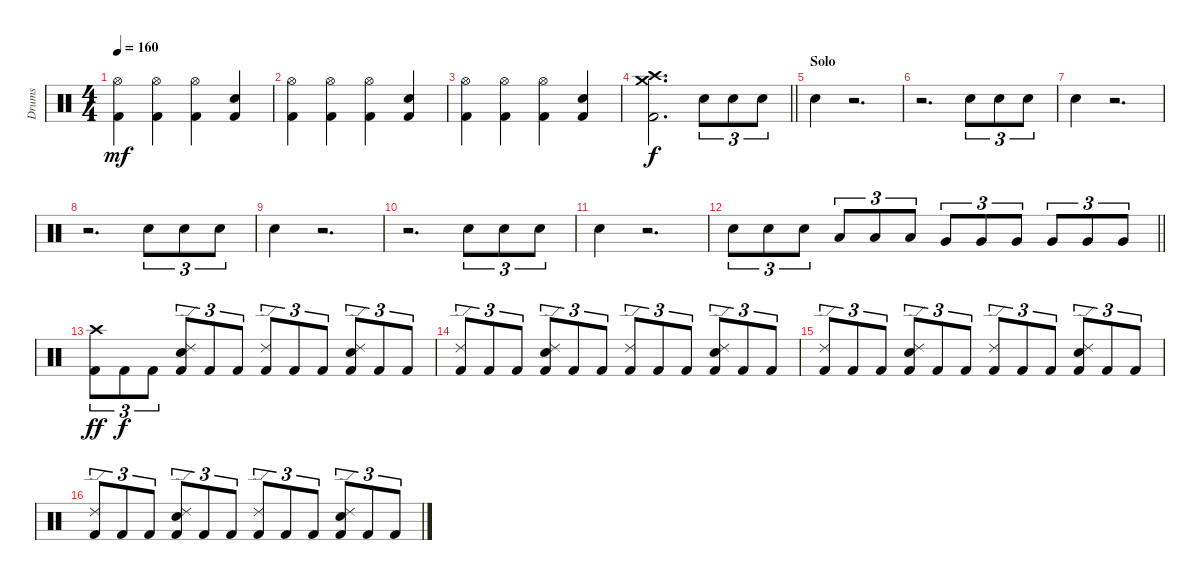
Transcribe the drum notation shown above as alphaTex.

\track ("Drums" "Drums") {instrument percussion}
\staff {score}
\articulation defaults
\ts (4 4)
\tempo 160
\clef neutral
\ks c
("Hi-Hat (open)" "Kick (hit) 2").4{dy mf} ("Hi-Hat (open)" "Kick (hit) 2").4 ("Hi-Hat (open)" "Kick (hit) 2").4 ("Snare (hit) 2" "Kick (hit) 2").4 |
("Hi-Hat (open)" "Kick (hit) 2").4 ("Hi-Hat (open)" "Kick (hit) 2").4 ("Hi-Hat (open)" "Kick (hit) 2").4 ("Snare (hit) 2" "Kick (hit) 2").4 |
("Hi-Hat (open)" "Kick (hit) 2").4 ("Hi-Hat (open)" "Kick (hit) 2").4 ("Hi-Hat (open)" "Kick (hit) 2").4 ("Snare (hit) 2" "Kick (hit) 2").4 |
\barLineRight lightlight
("Crash medium (hit)" "Crash high (hit)" "Kick (hit) 2").2{d dy f} "Snare (hit) 2".8{tu (3 2)} "Snare (hit) 2".8{tu (3 2)} "Snare (hit) 2".8{tu (3 2)} |
\section ("" "Solo")
"Snare (hit) 2".4 r.2{d} |
r.2{d} "Snare (hit) 2".8{tu (3 2)} "Snare (hit) 2".8{tu (3 2)} "Snare (hit) 2".8{tu (3 2)} |
"Snare (hit) 2".4 r.2{d} |
r.2{d} "Snare (hit) 2".8{tu (3 2)} "Snare (hit) 2".8{tu (3 2)} "Snare (hit) 2".8{tu (3 2)} |
"Snare (hit) 2".4 r.2{d} |
r.2{d} "Snare (hit) 2".8{tu (3 2)} "Snare (hit) 2".8{tu (3 2)} "Snare (hit) 2".8{tu (3 2)} |
"Snare (hit) 2".4 r.2{d} |
\barLineRight lightlight "Snare (hit) 2".8{tu (3 2)} "Snare (hit) 2".8{tu (3 2)} "Snare (hit) 2".8{tu (3 2)} "Low Tom (hit)".8{tu (3 2)} "Low Tom (hit)".8{tu (3 2)} "Low Tom (hit)".8{tu (3 2)} "Very Low Tom (hit)".8{tu (3 2)} "Very Low Tom (hit)".8{tu (3 2)} "Very Low Tom (hit)".8{tu (3 2)} "Very Low Tom (hit)".8{tu (3 2)} "Very Low Tom (hit)".8{tu (3 2)} "Very Low Tom (hit)".8{tu (3 2)}
|
\section ("" "")
("Crash high (hit)" "Kick (hit) 2").8{tu (3 2) dy ff} "Kick (hit) 2".8{tu (3 2) dy f} "Kick (hit) 2".8{tu (3 2)} ("Ride (edge) 2" "Snare (hit) 2" "Kick (hit) 2").8{tu (3 2)} "Kick (hit) 2".8{tu (3 2)} "Kick (hit) 2".8{tu (3 2)} ("Ride (edge) 2" "Kick (hit) 2").8{tu (3 2)} "Kick (hit) 2".8{tu (3 2)} "Kick (hit) 2".8{tu (3 2)} ("Ride (edge) 2" "Snare (hit) 2" "Kick (hit) 2").8{tu (3 2)} "Kick (hit) 2".8{tu (3 2)} "Kick (hit) 2".8{tu (3 2)} |
("Ride (edge) 2" "Kick (hit) 2").8{tu (3 2)} "Kick (hit) 2".8{tu (3 2)} "Kick (hit) 2".8{tu (3 2)} ("Ride (edge) 2" "Snare (hit) 2" "Kick (hit) 2").8{tu (3 2)} "Kick (hit) 2".8{tu (3 2)} "Kick (hit) 2".8{tu (3 2)} ("Ride (edge) 2" "Kick (hit) 2").8{tu (3 2)} "Kick (hit) 2".8{tu (3 2)} "Kick (hit) 2".8{tu (3 2)} ("Ride (edge) 2" "Snare (hit) 2" "Kick (hit) 2").8{tu (3 2)} "Kick (hit) 2".8{tu (3 2)} "Kick (hit) 2".8{tu (3 2)} |
("Ride (edge) 2" "Kick (hit) 2").8{tu (3 2)} "Kick (hit) 2".8{tu (3 2)} "Kick (hit) 2".8{tu (3 2)} ("Ride (edge) 2" "Snare (hit) 2" "Kick (hit) 2").8{tu (3 2)} "Kick (hit) 2".8{tu (3 2)} "Kick (hit) 2".8{tu (3 2)} ("Ride (edge) 2" "Kick (hit) 2").8{tu (3 2)} "Kick (hit) 2".8{tu (3 2)} "Kick (hit) 2".8{tu (3 2)} ("Ride (edge) 2" "Snare (hit) 2" "Kick (hit) 2").8{tu (3 2)} "Kick (hit) 2".8{tu (3 2)} "Kick (hit) 2".8{tu (3 2)} |
("Ride (edge) 2" "Kick (hit) 2").8{tu (3 2)} "Kick (hit) 2".8{tu (3 2)} "Kick (hit) 2".8{tu (3 2)} ("Ride (edge) 2" "Snare (hit) 2" "Kick (hit) 2").8{tu (3 2)} "Kick (hit) 2".8{tu (3 2)} "Kick (hit) 2".8{tu (3 2)} ("Ride (edge) 2" "Kick (hit) 2").8{tu (3 2)} "Kick (hit) 2".8{tu (3 2)} "Kick (hit) 2".8{tu (3 2)} ("Ride (edge) 2" "Snare (hit) 2" "Kick (hit) 2").8{tu (3 2)} "Kick (hit) 2".8{tu (3 2)} "Kick (hit) 2".8{tu (3 2)}
